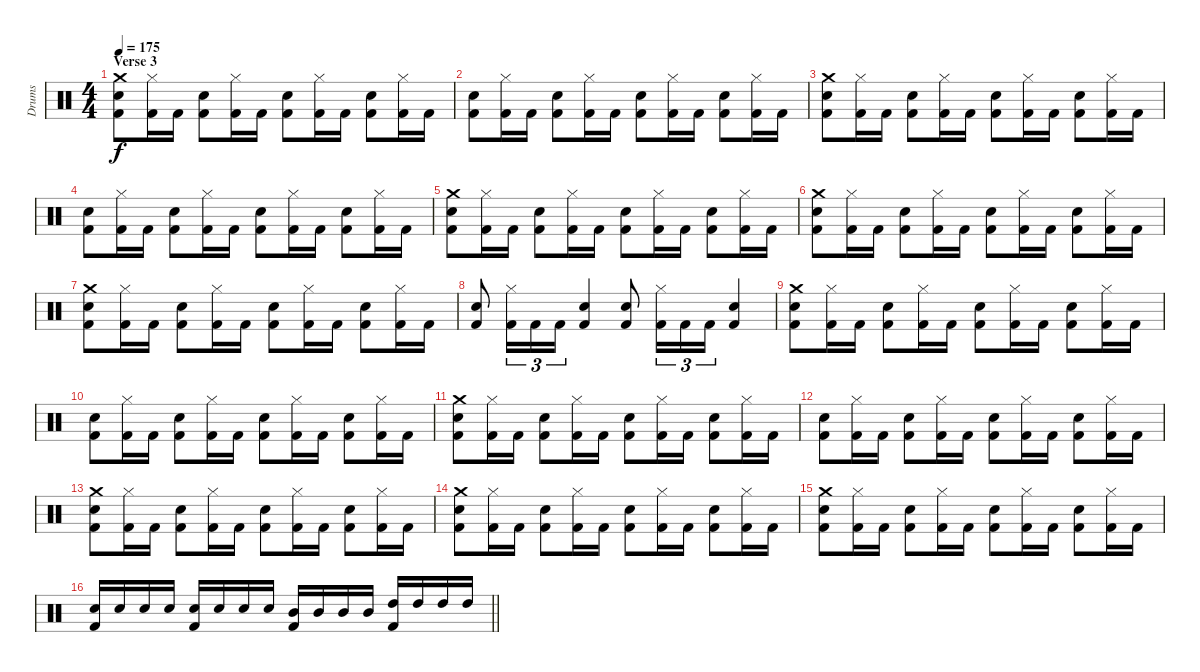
\track ("Drums" "Drums") {instrument percussion}
\staff {score}
\articulation defaults
\ts (4 4)
\section ("" "Verse 3")
\tempo 175
\clef neutral
\ks c
("Kick (hit) 2" "Snare (hit) 2" "Crash medium (hit)").8{dy f} ("Kick (hit) 2" "Hi-Hat (closed)").16 "Kick (hit) 2".16 ("Kick (hit) 2" "Snare (hit) 2").8 ("Kick (hit) 2" "Hi-Hat (closed)").16 "Kick (hit) 2".16 ("Kick (hit) 2" "Snare (hit) 2").8 ("Kick (hit) 2" "Hi-Hat (closed)").16 "Kick (hit) 2".16 ("Kick (hit) 2" "Snare (hit) 2").8 ("Kick (hit) 2" "Hi-Hat (closed)").16 "Kick (hit) 2".16 |
("Kick (hit) 2" "Snare (hit) 2").8 ("Kick (hit) 2" "Hi-Hat (closed)").16 "Kick (hit) 2".16 ("Kick (hit) 2" "Snare (hit) 2").8 ("Kick (hit) 2" "Hi-Hat (closed)").16 "Kick (hit) 2".16 ("Kick (hit) 2" "Snare (hit) 2").8 ("Kick (hit) 2" "Hi-Hat (closed)").16 "Kick (hit) 2".16 ("Kick (hit) 2" "Snare (hit) 2").8 ("Kick (hit) 2" "Hi-Hat (closed)").16 "Kick (hit) 2".16 |
("Kick (hit) 2" "Crash medium (hit)" "Snare (hit) 2").8 ("Kick (hit) 2" "Hi-Hat (closed)").16 "Kick (hit) 2".16 ("Kick (hit) 2" "Snare (hit) 2").8 ("Kick (hit) 2" "Hi-Hat (closed)").16 "Kick (hit) 2".16 ("Kick (hit) 2" "Snare (hit) 2").8 ("Kick (hit) 2" "Hi-Hat (closed)").16 "Kick (hit) 2".16 ("Kick (hit) 2" "Snare (hit) 2").8 ("Kick (hit) 2" "Hi-Hat (closed)").16 "Kick (hit) 2".16 |
("Kick (hit) 2" "Snare (hit) 2").8 ("Kick (hit) 2" "Hi-Hat (closed)").16 "Kick (hit) 2".16 ("Kick (hit) 2" "Snare (hit) 2").8 ("Kick (hit) 2" "Hi-Hat (closed)").16 "Kick (hit) 2".16 ("Kick (hit) 2" "Snare (hit) 2").8 ("Kick (hit) 2" "Hi-Hat (closed)").16 "Kick (hit) 2".16 ("Kick (hit) 2" "Snare (hit) 2").8 ("Kick (hit) 2" "Hi-Hat (closed)").16 "Kick (hit) 2".16 |
("Kick (hit) 2" "Crash medium (hit)" "Snare (hit) 2").8 ("Kick (hit) 2" "Hi-Hat (closed)").16 "Kick (hit) 2".16 ("Kick (hit) 2" "Snare (hit) 2").8 ("Kick (hit) 2" "Hi-Hat (closed)").16 "Kick (hit) 2".16 ("Kick (hit) 2" "Snare (hit) 2").8 ("Kick (hit) 2" "Hi-Hat (closed)").16 "Kick (hit) 2".16 ("Kick (hit) 2" "Snare (hit) 2").8 ("Kick (hit) 2" "Hi-Hat (closed)").16 "Kick (hit) 2".16 |
("Kick (hit) 2" "Snare (hit) 2" "Crash medium (hit)").8 ("Kick (hit) 2" "Hi-Hat (closed)").16 "Kick (hit) 2".16 ("Kick (hit) 2" "Snare (hit) 2").8 ("Kick (hit) 2" "Hi-Hat (closed)").16 "Kick (hit) 2".16 ("Kick (hit) 2" "Snare (hit) 2").8 ("Kick (hit) 2" "Hi-Hat (closed)").16 "Kick (hit) 2".16 ("Kick (hit) 2" "Snare (hit) 2").8 ("Kick (hit) 2" "Hi-Hat (closed)").16 "Kick (hit) 2".16 |
("Kick (hit) 2" "Snare (hit) 2" "Crash medium (hit)").8 ("Kick (hit) 2" "Hi-Hat (closed)").16 "Kick (hit) 2".16 ("Kick (hit) 2" "Snare (hit) 2").8 ("Kick (hit) 2" "Hi-Hat (closed)").16 "Kick (hit) 2".16 ("Kick (hit) 2" "Snare (hit) 2").8 ("Kick (hit) 2" "Hi-Hat (closed)").16 "Kick (hit) 2".16 ("Kick (hit) 2" "Snare (hit) 2").8 ("Kick (hit) 2" "Hi-Hat (closed)").16 "Kick (hit) 2".16 |
("Kick (hit) 2" "Snare (hit) 2").8 ("Kick (hit) 2" "Hi-Hat (closed)").16{tu (3 2)} "Kick (hit) 2".16{tu (3 2)} "Kick (hit) 2".16{tu (3 2)} ("Kick (hit) 2" "Snare (hit) 2").4 ("Kick (hit) 2" "Snare (hit) 2").8 ("Kick (hit) 2" "Hi-Hat (closed)").16{tu (3 2)} "Kick (hit) 2".16{tu (3 2)} "Kick (hit) 2".16{tu (3 2)} ("Kick (hit) 2" "Snare (hit) 2").4 |
("Kick (hit) 2" "Snare (hit) 2" "Crash medium (hit)").8 ("Kick (hit) 2" "Hi-Hat (closed)").16 "Kick (hit) 2".16 ("Kick (hit) 2" "Snare (hit) 2").8 ("Kick (hit) 2" "Hi-Hat (closed)").16 "Kick (hit) 2".16 ("Kick (hit) 2" "Snare (hit) 2").8 ("Kick (hit) 2" "Hi-Hat (closed)").16 "Kick (hit) 2".16 ("Kick (hit) 2" "Snare (hit) 2").8 ("Kick (hit) 2" "Hi-Hat (closed)").16 "Kick (hit) 2".16 |
("Kick (hit) 2" "Snare (hit) 2").8 ("Kick (hit) 2" "Hi-Hat (closed)").16 "Kick (hit) 2".16 ("Kick (hit) 2" "Snare (hit) 2").8 ("Kick (hit) 2" "Hi-Hat (closed)").16 "Kick (hit) 2".16 ("Kick (hit) 2" "Snare (hit) 2").8 ("Kick (hit) 2" "Hi-Hat (closed)").16 "Kick (hit) 2".16 ("Kick (hit) 2" "Snare (hit) 2").8 ("Kick (hit) 2" "Hi-Hat (closed)").16 "Kick (hit) 2".16 |
("Kick (hit) 2" "Crash medium (hit)" "Snare (hit) 2").8 ("Kick (hit) 2" "Hi-Hat (closed)").16 "Kick (hit) 2".16 ("Kick (hit) 2" "Snare (hit) 2").8 ("Kick (hit) 2" "Hi-Hat (closed)").16 "Kick (hit) 2".16 ("Kick (hit) 2" "Snare (hit) 2").8 ("Kick (hit) 2" "Hi-Hat (closed)").16 "Kick (hit) 2".16 ("Kick (hit) 2" "Snare (hit) 2").8 ("Kick (hit) 2" "Hi-Hat (closed)").16 "Kick (hit) 2".16 |
("Kick (hit) 2" "Snare (hit) 2").8 ("Kick (hit) 2" "Hi-Hat (closed)").16 "Kick (hit) 2".16 ("Kick (hit) 2" "Snare (hit) 2").8 ("Kick (hit) 2" "Hi-Hat (closed)").16 "Kick (hit) 2".16 ("Kick (hit) 2" "Snare (hit) 2").8 ("Kick (hit) 2" "Hi-Hat (closed)").16 "Kick (hit) 2".16 ("Kick (hit) 2" "Snare (hit) 2").8 ("Kick (hit) 2" "Hi-Hat (closed)").16 "Kick (hit) 2".16 |
("Kick (hit) 2" "Crash medium (hit)" "Snare (hit) 2").8 ("Kick (hit) 2" "Hi-Hat (closed)").16 "Kick (hit) 2".16 ("Kick (hit) 2" "Snare (hit) 2").8 ("Kick (hit) 2" "Hi-Hat (closed)").16 "Kick (hit) 2".16 ("Kick (hit) 2" "Snare (hit) 2").8 ("Kick (hit) 2" "Hi-Hat (closed)").16 "Kick (hit) 2".16 ("Kick (hit) 2" "Snare (hit) 2").8 ("Kick (hit) 2" "Hi-Hat (closed)").16 "Kick (hit) 2".16 |
("Kick (hit) 2" "Snare (hit) 2" "Crash medium (hit)").8 ("Kick (hit) 2" "Hi-Hat (closed)").16 "Kick (hit) 2".16 ("Kick (hit) 2" "Snare (hit) 2").8 ("Kick (hit) 2" "Hi-Hat (closed)").16 "Kick (hit) 2".16 ("Kick (hit) 2" "Snare (hit) 2").8 ("Kick (hit) 2" "Hi-Hat (closed)").16 "Kick (hit) 2".16 ("Kick (hit) 2" "Snare (hit) 2").8 ("Kick (hit) 2" "Hi-Hat (closed)").16 "Kick (hit) 2".16 |
("Kick (hit) 2" "Snare (hit) 2" "Crash medium (hit)").8 ("Kick (hit) 2" "Hi-Hat (closed)").16 "Kick (hit) 2".16 ("Kick (hit) 2" "Snare (hit) 2").8 ("Kick (hit) 2" "Hi-Hat (closed)").16 "Kick (hit) 2".16 ("Kick (hit) 2" "Snare (hit) 2").8 ("Kick (hit) 2" "Hi-Hat (closed)").16 "Kick (hit) 2".16 ("Kick (hit) 2" "Snare (hit) 2").8 ("Kick (hit) 2" "Hi-Hat (closed)").16 "Kick (hit) 2".16 |
\barLineRight lightlight
("Kick (hit) 2" "Snare (hit) 2").16 "Snare (hit) 2".16 "Snare (hit) 2".16 "Snare (hit) 2".16 ("Kick (hit) 2" "Electric Snare (hit)").16 "Electric Snare (hit)".16 "Electric Snare (hit)".16 "Electric Snare (hit)".16 ("Kick (hit) 2" "Mid Tom (hit)").16 "Mid Tom (hit)".16 "Mid Tom (hit)".16 "Mid Tom (hit)".16 ("Kick (hit) 2" "High Tom (hit)").16 "High Tom (hit)".16 "High Tom (hit)".16 "High Tom (hit)".16
